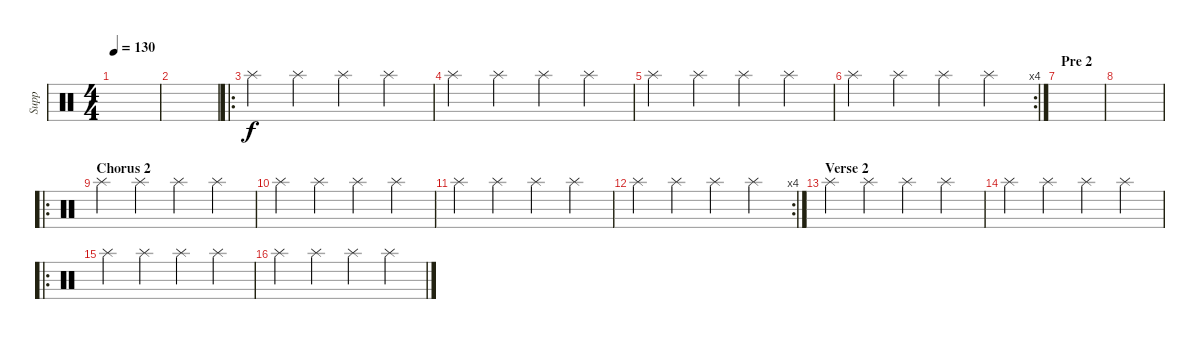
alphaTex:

\track ("Supp" "Supp") {instrument percussion}
\staff {score}
\articulation defaults
\ts (4 4)
\tempo 130
\clef neutral
\ks c
|
|
\ro "Splash (hit)".4 "Splash (hit)".4 "Splash (hit)".4 "Splash (hit)".4
|
"Splash (hit)".4 "Splash (hit)".4 "Splash (hit)".4 "Splash (hit)".4 |
"Splash (hit)".4 "Splash (hit)".4 "Splash (hit)".4 "Splash (hit)".4 |
\rc 4 "Splash (hit)".4 "Splash (hit)".4 "Splash (hit)".4 "Splash (hit)".4
|
\section ("" "Pre 2")
|
|
\ro
\section ("" "Chorus 2")
"Splash (hit)".4 "Splash (hit)".4 "Splash (hit)".4 "Splash (hit)".4 |
"Splash (hit)".4 "Splash (hit)".4 "Splash (hit)".4 "Splash (hit)".4 |
"Splash (hit)".4 "Splash (hit)".4 "Splash (hit)".4 "Splash (hit)".4 |
\rc 4 "Splash (hit)".4 "Splash (hit)".4 "Splash (hit)".4 "Splash (hit)".4
|
\section ("" "Verse 2")
"Splash (hit)".4 "Splash (hit)".4 "Splash (hit)".4 "Splash (hit)".4 |
"Splash (hit)".4 "Splash (hit)".4 "Splash (hit)".4 "Splash (hit)".4 |
\ro "Splash (hit)".4 "Splash (hit)".4 "Splash (hit)".4 "Splash (hit)".4
|
"Splash (hit)".4 "Splash (hit)".4 "Splash (hit)".4 "Splash (hit)".4
